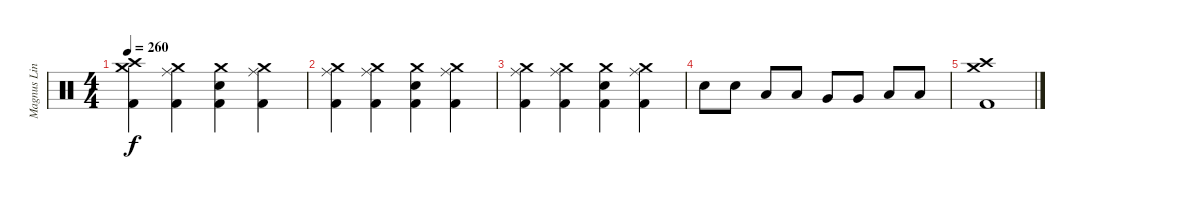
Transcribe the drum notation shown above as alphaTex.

\track ("Magnus Lindberg" "Magnus Lin") {instrument percussion}
\staff {score}
\articulation defaults
\ts (4 4)
\tempo 260
\clef neutral
\ks c
("Crash medium (hit)" "Crash high (hit)" "Kick (hit) 2").4{dy f} ("Crash medium (hit)" "Ride (middle)" "Kick (hit) 2").4 ("Crash medium (hit)" "Snare (hit) 2" "Kick (hit) 2").4 ("Crash medium (hit)" "Ride (middle)" "Kick (hit) 2").4 |
("Crash medium (hit)" "Ride (middle)" "Kick (hit) 2").4 ("Crash medium (hit)" "Ride (middle)" "Kick (hit) 2").4 ("Crash medium (hit)" "Snare (hit) 2" "Kick (hit) 2").4 ("Crash medium (hit)" "Ride (middle)" "Kick (hit) 2").4 |
("Crash medium (hit)" "Ride (middle)" "Kick (hit) 2").4 ("Crash medium (hit)" "Ride (middle)" "Kick (hit) 2").4 ("Crash medium (hit)" "Snare (hit) 2" "Kick (hit) 2").4 ("Crash medium (hit)" "Ride (middle)" "Kick (hit) 2").4 |
"Snare (hit) 2".8 "Snare (hit) 2".8 "Low Tom (hit)".8 "Low Tom (hit)".8 "Very Low Tom (hit)".8 "Very Low Tom (hit)".8 "Low Tom (hit)".8 "Low Tom (hit)".8 |
("Crash medium (hit)" "Crash high (hit)" "Kick (hit) 2").1
